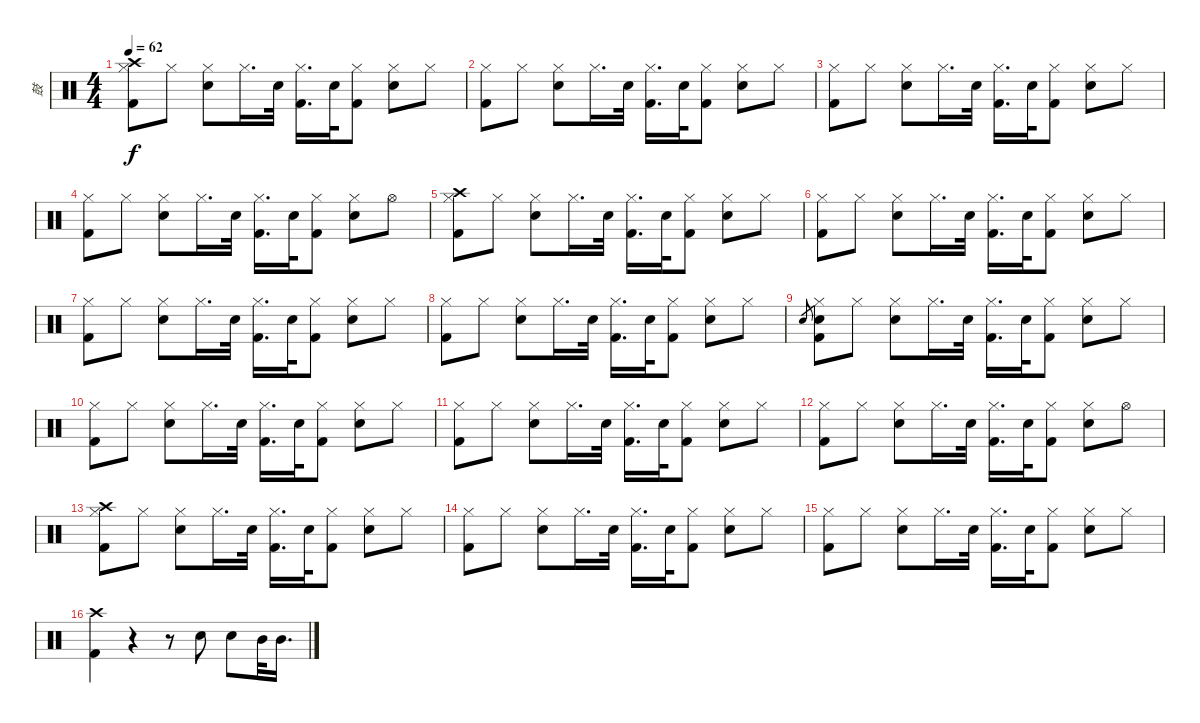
\track ("鼓" "鼓") {instrument percussion}
\staff {score}
\articulation defaults
\ts (4 4)
\tempo 62
\clef neutral
\ks c
("Kick (hit) 2" "Crash high (hit)" "Hi-Hat (closed)").8{dy f} "Hi-Hat (closed)".8 ("Electric Snare (hit)" "Hi-Hat (closed)").8 "Hi-Hat (closed)".16{d} "Electric Snare (hit)".32 ("Kick (hit) 2" "Hi-Hat (closed)").16{d} "Electric Snare (hit)".32 ("Kick (hit) 2" "Hi-Hat (closed)").8 ("Electric Snare (hit)" "Hi-Hat (closed)").8 "Hi-Hat (closed)".8 |
("Kick (hit) 2" "Hi-Hat (closed)").8 "Hi-Hat (closed)".8 ("Electric Snare (hit)" "Hi-Hat (closed)").8 "Hi-Hat (closed)".16{d} "Electric Snare (hit)".32 ("Kick (hit) 2" "Hi-Hat (closed)").16{d} "Electric Snare (hit)".32 ("Kick (hit) 2" "Hi-Hat (closed)").8 ("Electric Snare (hit)" "Hi-Hat (closed)").8 "Hi-Hat (closed)".8 |
("Kick (hit) 2" "Hi-Hat (closed)").8 "Hi-Hat (closed)".8 ("Electric Snare (hit)" "Hi-Hat (closed)").8 "Hi-Hat (closed)".16{d} "Electric Snare (hit)".32 ("Kick (hit) 2" "Hi-Hat (closed)").16{d} "Electric Snare (hit)".32 ("Kick (hit) 2" "Hi-Hat (closed)").8 ("Electric Snare (hit)" "Hi-Hat (closed)").8 "Hi-Hat (closed)".8 |
("Kick (hit) 2" "Hi-Hat (closed)").8 "Hi-Hat (closed)".8 ("Electric Snare (hit)" "Hi-Hat (closed)").8 "Hi-Hat (closed)".16{d} "Electric Snare (hit)".32 ("Kick (hit) 2" "Hi-Hat (closed)").16{d} "Electric Snare (hit)".32 ("Kick (hit) 2" "Hi-Hat (closed)").8 ("Electric Snare (hit)" "Hi-Hat (closed)").8 "Hi-Hat (open)".8 |
("Kick (hit) 2" "Crash high (hit)" "Hi-Hat (closed)").8 "Hi-Hat (closed)".8 ("Electric Snare (hit)" "Hi-Hat (closed)").8 "Hi-Hat (closed)".16{d} "Electric Snare (hit)".32 ("Kick (hit) 2" "Hi-Hat (closed)").16{d} "Electric Snare (hit)".32 ("Kick (hit) 2" "Hi-Hat (closed)").8 ("Electric Snare (hit)" "Hi-Hat (closed)").8 "Hi-Hat (closed)".8 |
("Kick (hit) 2" "Hi-Hat (closed)").8 "Hi-Hat (closed)".8 ("Electric Snare (hit)" "Hi-Hat (closed)").8 "Hi-Hat (closed)".16{d} "Electric Snare (hit)".32 ("Kick (hit) 2" "Hi-Hat (closed)").16{d} "Electric Snare (hit)".32 ("Kick (hit) 2" "Hi-Hat (closed)").8 ("Electric Snare (hit)" "Hi-Hat (closed)").8 "Hi-Hat (closed)".8 |
("Kick (hit) 2" "Hi-Hat (closed)").8 "Hi-Hat (closed)".8 ("Electric Snare (hit)" "Hi-Hat (closed)").8 "Hi-Hat (closed)".16{d} "Electric Snare (hit)".32 ("Kick (hit) 2" "Hi-Hat (closed)").16{d} "Electric Snare (hit)".32 ("Kick (hit) 2" "Hi-Hat (closed)").8 ("Electric Snare (hit)" "Hi-Hat (closed)").8 "Hi-Hat (closed)".8 |
("Kick (hit) 2" "Hi-Hat (closed)").8 "Hi-Hat (closed)".8 ("Electric Snare (hit)" "Hi-Hat (closed)").8 "Hi-Hat (closed)".16{d} "Electric Snare (hit)".32 ("Kick (hit) 2" "Hi-Hat (closed)").16{d} "Electric Snare (hit)".32 ("Kick (hit) 2" "Hi-Hat (closed)").8 ("Electric Snare (hit)" "Hi-Hat (closed)").8 "Hi-Hat (closed)".8 |
"Electric Snare (hit)".8{gr} ("Kick (hit) 2" "Electric Snare (hit)" "Hi-Hat (closed)").8 "Hi-Hat (closed)".8 ("Electric Snare (hit)" "Hi-Hat (closed)").8 "Hi-Hat (closed)".16{d} "Electric Snare (hit)".32 ("Kick (hit) 2" "Hi-Hat (closed)").16{d} "Electric Snare (hit)".32 ("Kick (hit) 2" "Hi-Hat (closed)").8 ("Electric Snare (hit)" "Hi-Hat (closed)").8 "Hi-Hat (closed)".8 |
("Kick (hit) 2" "Hi-Hat (closed)").8 "Hi-Hat (closed)".8 ("Electric Snare (hit)" "Hi-Hat (closed)").8 "Hi-Hat (closed)".16{d} "Electric Snare (hit)".32 ("Kick (hit) 2" "Hi-Hat (closed)").16{d} "Electric Snare (hit)".32 ("Kick (hit) 2" "Hi-Hat (closed)").8 ("Electric Snare (hit)" "Hi-Hat (closed)").8 "Hi-Hat (closed)".8 |
("Kick (hit) 2" "Hi-Hat (closed)").8 "Hi-Hat (closed)".8 ("Electric Snare (hit)" "Hi-Hat (closed)").8 "Hi-Hat (closed)".16{d} "Electric Snare (hit)".32 ("Kick (hit) 2" "Hi-Hat (closed)").16{d} "Electric Snare (hit)".32 ("Kick (hit) 2" "Hi-Hat (closed)").8 ("Electric Snare (hit)" "Hi-Hat (closed)").8 "Hi-Hat (closed)".8 |
("Kick (hit) 2" "Hi-Hat (closed)").8 "Hi-Hat (closed)".8 ("Electric Snare (hit)" "Hi-Hat (closed)").8 "Hi-Hat (closed)".16{d} "Electric Snare (hit)".32 ("Kick (hit) 2" "Hi-Hat (closed)").16{d} "Electric Snare (hit)".32 ("Kick (hit) 2" "Hi-Hat (closed)").8 ("Electric Snare (hit)" "Hi-Hat (closed)").8 "Hi-Hat (open)".8 |
("Kick (hit) 2" "Crash high (hit)" "Hi-Hat (closed)").8 "Hi-Hat (closed)".8 ("Electric Snare (hit)" "Hi-Hat (closed)").8 "Hi-Hat (closed)".16{d} "Electric Snare (hit)".32 ("Kick (hit) 2" "Hi-Hat (closed)").16{d} "Electric Snare (hit)".32 ("Kick (hit) 2" "Hi-Hat (closed)").8 ("Electric Snare (hit)" "Hi-Hat (closed)").8 "Hi-Hat (closed)".8 |
("Kick (hit) 2" "Hi-Hat (closed)").8 "Hi-Hat (closed)".8 ("Electric Snare (hit)" "Hi-Hat (closed)").8 "Hi-Hat (closed)".16{d} "Electric Snare (hit)".32 ("Kick (hit) 2" "Hi-Hat (closed)").16{d} "Electric Snare (hit)".32 ("Kick (hit) 2" "Hi-Hat (closed)").8 ("Electric Snare (hit)" "Hi-Hat (closed)").8 "Hi-Hat (closed)".8 |
("Kick (hit) 2" "Hi-Hat (closed)").8 "Hi-Hat (closed)".8 ("Electric Snare (hit)" "Hi-Hat (closed)").8 "Hi-Hat (closed)".16{d} "Electric Snare (hit)".32 ("Kick (hit) 2" "Hi-Hat (closed)").16{d} "Electric Snare (hit)".32 ("Kick (hit) 2" "Hi-Hat (closed)").8 ("Electric Snare (hit)" "Hi-Hat (closed)").8 "Hi-Hat (closed)".8 |
("Kick (hit) 2" "Crash high (hit)").4 r.4 r.8 "Electric Snare (hit)".8 "Electric Snare (hit)".8 "Mid Tom (hit)".32 "Mid Tom (hit)".16{d}
